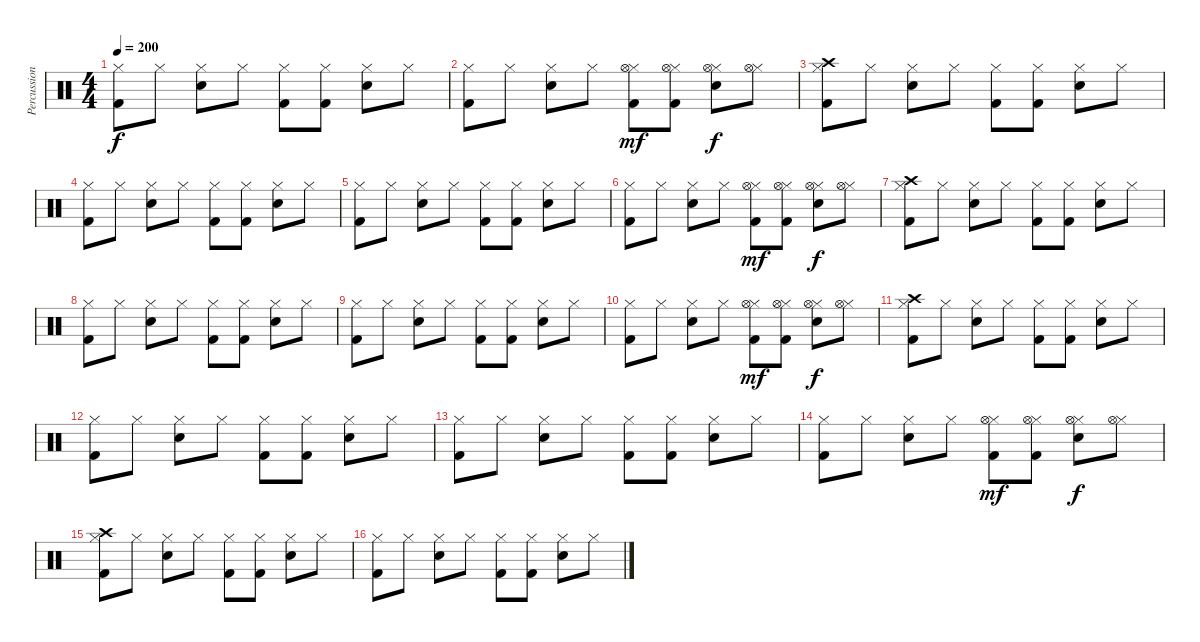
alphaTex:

\track ("Percussions" "Percussion") {instrument percussion}
\staff {score}
\articulation defaults
\ts (4 4)
\tempo 200
\clef neutral
\ks c
("Hi-Hat (closed)" "Kick (hit) 2").8{dy f} "Hi-Hat (closed)".8 ("Hi-Hat (closed)" "Electric Snare (hit)").8 "Hi-Hat (closed)".8 ("Hi-Hat (closed)" "Kick (hit) 2").8 ("Hi-Hat (closed)" "Kick (hit) 2").8 ("Hi-Hat (closed)" "Electric Snare (hit)").8 "Hi-Hat (closed)".8 |
("Hi-Hat (closed)" "Kick (hit) 2").8 "Hi-Hat (closed)".8 ("Hi-Hat (closed)" "Electric Snare (hit)").8 "Hi-Hat (closed)".8 ("Hi-Hat (closed)" "Hi-Hat (open)" "Kick (hit) 2").8{dy mf} ("Hi-Hat (closed)" "Hi-Hat (open)" "Kick (hit) 2").8 ("Hi-Hat (closed)" "Hi-Hat (open)" "Electric Snare (hit)").8{dy f} ("Hi-Hat (closed)" "Hi-Hat (open)").8 |
("Crash high (hit)" "Hi-Hat (closed)" "Kick (hit) 2").8 "Hi-Hat (closed)".8 ("Hi-Hat (closed)" "Electric Snare (hit)").8 "Hi-Hat (closed)".8 ("Hi-Hat (closed)" "Kick (hit) 2").8 ("Hi-Hat (closed)" "Kick (hit) 2").8 ("Hi-Hat (closed)" "Electric Snare (hit)").8 "Hi-Hat (closed)".8 |
("Hi-Hat (closed)" "Kick (hit) 2").8 "Hi-Hat (closed)".8 ("Hi-Hat (closed)" "Electric Snare (hit)").8 "Hi-Hat (closed)".8 ("Hi-Hat (closed)" "Kick (hit) 2").8 ("Hi-Hat (closed)" "Kick (hit) 2").8 ("Hi-Hat (closed)" "Electric Snare (hit)").8 "Hi-Hat (closed)".8 |
("Hi-Hat (closed)" "Kick (hit) 2").8 "Hi-Hat (closed)".8 ("Hi-Hat (closed)" "Electric Snare (hit)").8 "Hi-Hat (closed)".8 ("Hi-Hat (closed)" "Kick (hit) 2").8 ("Hi-Hat (closed)" "Kick (hit) 2").8 ("Hi-Hat (closed)" "Electric Snare (hit)").8 "Hi-Hat (closed)".8 |
("Hi-Hat (closed)" "Kick (hit) 2").8 "Hi-Hat (closed)".8 ("Hi-Hat (closed)" "Electric Snare (hit)").8 "Hi-Hat (closed)".8 ("Hi-Hat (closed)" "Hi-Hat (open)" "Kick (hit) 2").8{dy mf} ("Hi-Hat (closed)" "Hi-Hat (open)" "Kick (hit) 2").8 ("Hi-Hat (closed)" "Hi-Hat (open)" "Electric Snare (hit)").8{dy f} ("Hi-Hat (closed)" "Hi-Hat (open)").8 |
("Crash high (hit)" "Hi-Hat (closed)" "Kick (hit) 2").8 "Hi-Hat (closed)".8 ("Hi-Hat (closed)" "Electric Snare (hit)").8 "Hi-Hat (closed)".8 ("Hi-Hat (closed)" "Kick (hit) 2").8 ("Hi-Hat (closed)" "Kick (hit) 2").8 ("Hi-Hat (closed)" "Electric Snare (hit)").8 "Hi-Hat (closed)".8 |
("Hi-Hat (closed)" "Kick (hit) 2").8 "Hi-Hat (closed)".8 ("Hi-Hat (closed)" "Electric Snare (hit)").8 "Hi-Hat (closed)".8 ("Hi-Hat (closed)" "Kick (hit) 2").8 ("Hi-Hat (closed)" "Kick (hit) 2").8 ("Hi-Hat (closed)" "Electric Snare (hit)").8 "Hi-Hat (closed)".8 |
("Hi-Hat (closed)" "Kick (hit) 2").8 "Hi-Hat (closed)".8 ("Hi-Hat (closed)" "Electric Snare (hit)").8 "Hi-Hat (closed)".8 ("Hi-Hat (closed)" "Kick (hit) 2").8 ("Hi-Hat (closed)" "Kick (hit) 2").8 ("Hi-Hat (closed)" "Electric Snare (hit)").8 "Hi-Hat (closed)".8 |
("Hi-Hat (closed)" "Kick (hit) 2").8 "Hi-Hat (closed)".8 ("Hi-Hat (closed)" "Electric Snare (hit)").8 "Hi-Hat (closed)".8 ("Hi-Hat (closed)" "Hi-Hat (open)" "Kick (hit) 2").8{dy mf} ("Hi-Hat (closed)" "Hi-Hat (open)" "Kick (hit) 2").8 ("Hi-Hat (closed)" "Hi-Hat (open)" "Electric Snare (hit)").8{dy f} ("Hi-Hat (closed)" "Hi-Hat (open)").8 |
("Crash high (hit)" "Hi-Hat (closed)" "Kick (hit) 2").8 "Hi-Hat (closed)".8 ("Hi-Hat (closed)" "Electric Snare (hit)").8 "Hi-Hat (closed)".8 ("Hi-Hat (closed)" "Kick (hit) 2").8 ("Hi-Hat (closed)" "Kick (hit) 2").8 ("Hi-Hat (closed)" "Electric Snare (hit)").8 "Hi-Hat (closed)".8 |
("Hi-Hat (closed)" "Kick (hit) 2").8 "Hi-Hat (closed)".8 ("Hi-Hat (closed)" "Electric Snare (hit)").8 "Hi-Hat (closed)".8 ("Hi-Hat (closed)" "Kick (hit) 2").8 ("Hi-Hat (closed)" "Kick (hit) 2").8 ("Hi-Hat (closed)" "Electric Snare (hit)").8 "Hi-Hat (closed)".8 |
("Hi-Hat (closed)" "Kick (hit) 2").8 "Hi-Hat (closed)".8 ("Hi-Hat (closed)" "Electric Snare (hit)").8 "Hi-Hat (closed)".8 ("Hi-Hat (closed)" "Kick (hit) 2").8 ("Hi-Hat (closed)" "Kick (hit) 2").8 ("Hi-Hat (closed)" "Electric Snare (hit)").8 "Hi-Hat (closed)".8 |
("Hi-Hat (closed)" "Kick (hit) 2").8 "Hi-Hat (closed)".8 ("Hi-Hat (closed)" "Electric Snare (hit)").8 "Hi-Hat (closed)".8 ("Hi-Hat (closed)" "Hi-Hat (open)" "Kick (hit) 2").8{dy mf} ("Hi-Hat (closed)" "Hi-Hat (open)" "Kick (hit) 2").8 ("Hi-Hat (closed)" "Hi-Hat (open)" "Electric Snare (hit)").8{dy f} ("Hi-Hat (closed)" "Hi-Hat (open)").8 |
("Crash high (hit)" "Hi-Hat (closed)" "Kick (hit) 2").8 "Hi-Hat (closed)".8 ("Hi-Hat (closed)" "Electric Snare (hit)").8 "Hi-Hat (closed)".8 ("Hi-Hat (closed)" "Kick (hit) 2").8 ("Hi-Hat (closed)" "Kick (hit) 2").8 ("Hi-Hat (closed)" "Electric Snare (hit)").8 "Hi-Hat (closed)".8 |
("Hi-Hat (closed)" "Kick (hit) 2").8 "Hi-Hat (closed)".8 ("Hi-Hat (closed)" "Electric Snare (hit)").8 "Hi-Hat (closed)".8 ("Hi-Hat (closed)" "Kick (hit) 2").8 ("Hi-Hat (closed)" "Kick (hit) 2").8 ("Hi-Hat (closed)" "Electric Snare (hit)").8 "Hi-Hat (closed)".8
